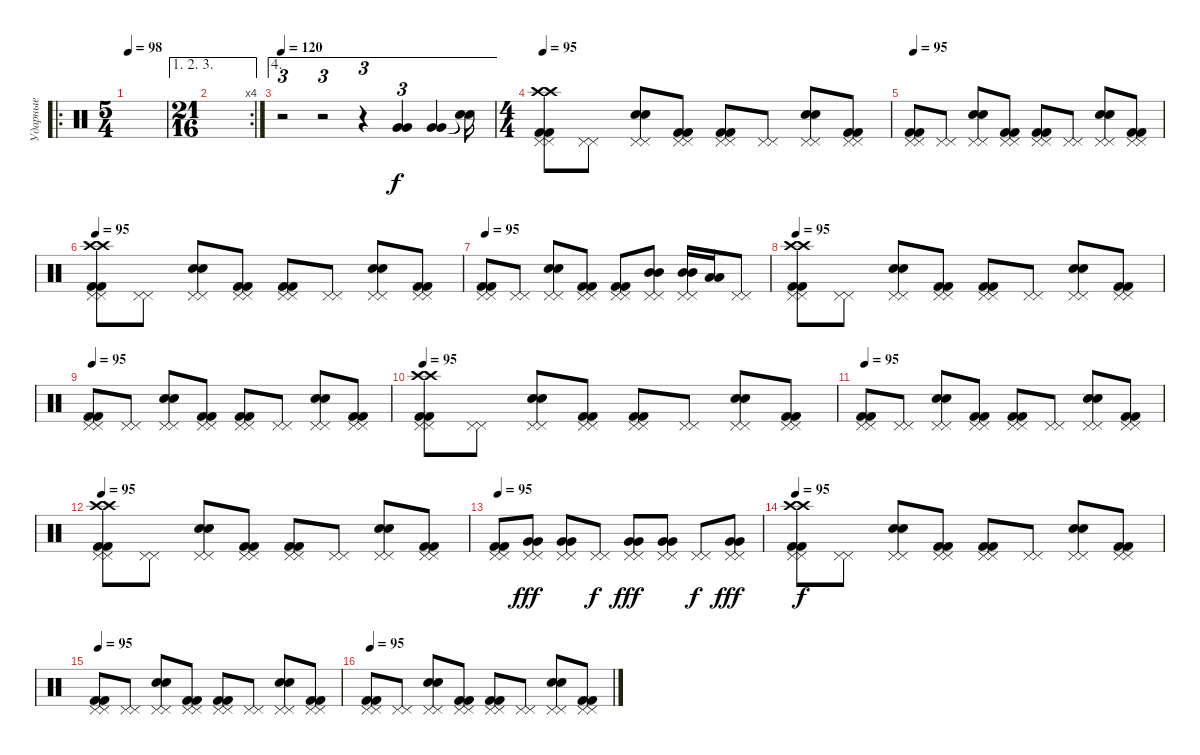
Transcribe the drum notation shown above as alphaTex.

\track ("Ударные" "Ударные") {instrument percussion}
\staff {score}
\articulation defaults
\ro
\ts (5 4)
\tempo 98
\tempo 120
\tempo 98
\clef neutral
\ks c
|
\ae (1 2 3)
\rc 4
\ts (21 16)
|
\ae 4
\tempo 120
r.2{tu (3 2)} r.2{tu (3 2)} r.4{tu (3 2)} ("Very Low Tom (hit)" "Very Low Tom (hit)").4{tu (3 2)} ("Very Low Tom (hit)" "Very Low Tom (hit)").4 ("Snare (hit)"{t} "Snare (hit)"{t}).16{dy f} |
\ts (4 4)
\tempo 95
("Kick (hit) 2" "Kick (hit) 2" "Pedal Hi-Hat (hit)" "Pedal Hi-Hat (hit)" "Crash high (hit)" "Crash high (hit)").8 ("Pedal Hi-Hat (hit)" "Pedal Hi-Hat (hit)").8 ("Pedal Hi-Hat (hit)" "Pedal Hi-Hat (hit)" "Electric Snare (hit)" "Electric Snare (hit)").8 ("Pedal Hi-Hat (hit)" "Pedal Hi-Hat (hit)" "Kick (hit) 2" "Kick (hit) 2").8 ("Pedal Hi-Hat (hit)" "Pedal Hi-Hat (hit)" "Kick (hit) 2" "Kick (hit) 2").8 ("Pedal Hi-Hat (hit)" "Pedal Hi-Hat (hit)").8 ("Pedal Hi-Hat (hit)" "Pedal Hi-Hat (hit)" "Electric Snare (hit)" "Electric Snare (hit)").8 ("Pedal Hi-Hat (hit)" "Pedal Hi-Hat (hit)" "Kick (hit) 2" "Kick (hit) 2").8 |
\tempo 95
("Kick (hit) 2" "Kick (hit) 2" "Pedal Hi-Hat (hit)" "Pedal Hi-Hat (hit)").8 ("Pedal Hi-Hat (hit)" "Pedal Hi-Hat (hit)").8 ("Pedal Hi-Hat (hit)" "Pedal Hi-Hat (hit)" "Electric Snare (hit)" "Electric Snare (hit)").8 ("Pedal Hi-Hat (hit)" "Pedal Hi-Hat (hit)" "Kick (hit) 2" "Kick (hit) 2").8 ("Pedal Hi-Hat (hit)" "Pedal Hi-Hat (hit)" "Kick (hit) 2" "Kick (hit) 2").8 ("Pedal Hi-Hat (hit)" "Pedal Hi-Hat (hit)").8 ("Pedal Hi-Hat (hit)" "Pedal Hi-Hat (hit)" "Electric Snare (hit)" "Electric Snare (hit)").8 ("Pedal Hi-Hat (hit)" "Pedal Hi-Hat (hit)" "Kick (hit) 2" "Kick (hit) 2").8 |
\tempo 95
("Kick (hit) 2" "Kick (hit) 2" "Pedal Hi-Hat (hit)" "Pedal Hi-Hat (hit)" "Crash high (hit)" "Crash high (hit)").8 ("Pedal Hi-Hat (hit)" "Pedal Hi-Hat (hit)").8 ("Pedal Hi-Hat (hit)" "Pedal Hi-Hat (hit)" "Electric Snare (hit)" "Electric Snare (hit)").8 ("Pedal Hi-Hat (hit)" "Pedal Hi-Hat (hit)" "Kick (hit) 2" "Kick (hit) 2").8 ("Pedal Hi-Hat (hit)" "Pedal Hi-Hat (hit)" "Kick (hit) 2" "Kick (hit) 2").8 ("Pedal Hi-Hat (hit)" "Pedal Hi-Hat (hit)").8 ("Pedal Hi-Hat (hit)" "Pedal Hi-Hat (hit)" "Electric Snare (hit)" "Electric Snare (hit)").8 ("Pedal Hi-Hat (hit)" "Pedal Hi-Hat (hit)" "Kick (hit) 2" "Kick (hit) 2").8 |
\tempo 95
("Kick (hit) 2" "Kick (hit) 2" "Pedal Hi-Hat (hit)" "Pedal Hi-Hat (hit)").8 ("Pedal Hi-Hat (hit)" "Pedal Hi-Hat (hit)").8 ("Pedal Hi-Hat (hit)" "Pedal Hi-Hat (hit)" "Electric Snare (hit)" "Electric Snare (hit)").8 ("Pedal Hi-Hat (hit)" "Pedal Hi-Hat (hit)" "Kick (hit) 2" "Kick (hit) 2").8 ("Pedal Hi-Hat (hit)" "Pedal Hi-Hat (hit)" "Kick (hit) 2" "Kick (hit) 2").8 ("Mid Tom (hit)" "Mid Tom (hit)" "Pedal Hi-Hat (hit)" "Pedal Hi-Hat (hit)").8 ("Mid Tom (hit)" "Mid Tom (hit)" "Pedal Hi-Hat (hit)" "Pedal Hi-Hat (hit)").16 ("Low Tom (hit)" "Low Tom (hit)").16 ("Pedal Hi-Hat (hit)" "Pedal Hi-Hat (hit)").8 |
\tempo 95
("Kick (hit) 2" "Kick (hit) 2" "Pedal Hi-Hat (hit)" "Pedal Hi-Hat (hit)" "Crash high (hit)" "Crash high (hit)").8 ("Pedal Hi-Hat (hit)" "Pedal Hi-Hat (hit)").8 ("Pedal Hi-Hat (hit)" "Pedal Hi-Hat (hit)" "Electric Snare (hit)" "Electric Snare (hit)").8 ("Pedal Hi-Hat (hit)" "Pedal Hi-Hat (hit)" "Kick (hit) 2" "Kick (hit) 2").8 ("Pedal Hi-Hat (hit)" "Pedal Hi-Hat (hit)" "Kick (hit) 2" "Kick (hit) 2").8 ("Pedal Hi-Hat (hit)" "Pedal Hi-Hat (hit)").8 ("Pedal Hi-Hat (hit)" "Pedal Hi-Hat (hit)" "Electric Snare (hit)" "Electric Snare (hit)").8 ("Pedal Hi-Hat (hit)" "Pedal Hi-Hat (hit)" "Kick (hit) 2" "Kick (hit) 2").8 |
\tempo 95
("Kick (hit) 2" "Kick (hit) 2" "Pedal Hi-Hat (hit)" "Pedal Hi-Hat (hit)").8 ("Pedal Hi-Hat (hit)" "Pedal Hi-Hat (hit)").8 ("Pedal Hi-Hat (hit)" "Pedal Hi-Hat (hit)" "Electric Snare (hit)" "Electric Snare (hit)").8 ("Pedal Hi-Hat (hit)" "Pedal Hi-Hat (hit)" "Kick (hit) 2" "Kick (hit) 2").8 ("Pedal Hi-Hat (hit)" "Pedal Hi-Hat (hit)" "Kick (hit) 2" "Kick (hit) 2").8 ("Pedal Hi-Hat (hit)" "Pedal Hi-Hat (hit)").8 ("Pedal Hi-Hat (hit)" "Pedal Hi-Hat (hit)" "Electric Snare (hit)" "Electric Snare (hit)").8 ("Pedal Hi-Hat (hit)" "Pedal Hi-Hat (hit)" "Kick (hit) 2" "Kick (hit) 2").8 |
\tempo 95
("Kick (hit) 2" "Kick (hit) 2" "Pedal Hi-Hat (hit)" "Pedal Hi-Hat (hit)" "Crash high (hit)" "Crash high (hit)").8 ("Pedal Hi-Hat (hit)" "Pedal Hi-Hat (hit)").8 ("Pedal Hi-Hat (hit)" "Pedal Hi-Hat (hit)" "Electric Snare (hit)" "Electric Snare (hit)").8 ("Pedal Hi-Hat (hit)" "Pedal Hi-Hat (hit)" "Kick (hit) 2" "Kick (hit) 2").8 ("Pedal Hi-Hat (hit)" "Pedal Hi-Hat (hit)" "Kick (hit) 2" "Kick (hit) 2").8 ("Pedal Hi-Hat (hit)" "Pedal Hi-Hat (hit)").8 ("Pedal Hi-Hat (hit)" "Pedal Hi-Hat (hit)" "Electric Snare (hit)" "Electric Snare (hit)").8 ("Pedal Hi-Hat (hit)" "Pedal Hi-Hat (hit)" "Kick (hit) 2" "Kick (hit) 2").8 |
\tempo 95
("Kick (hit) 2" "Kick (hit) 2" "Pedal Hi-Hat (hit)" "Pedal Hi-Hat (hit)").8 ("Pedal Hi-Hat (hit)" "Pedal Hi-Hat (hit)").8 ("Pedal Hi-Hat (hit)" "Pedal Hi-Hat (hit)" "Electric Snare (hit)" "Electric Snare (hit)").8 ("Pedal Hi-Hat (hit)" "Pedal Hi-Hat (hit)" "Kick (hit) 2" "Kick (hit) 2").8 ("Pedal Hi-Hat (hit)" "Pedal Hi-Hat (hit)" "Kick (hit) 2" "Kick (hit) 2").8 ("Pedal Hi-Hat (hit)" "Pedal Hi-Hat (hit)").8 ("Pedal Hi-Hat (hit)" "Pedal Hi-Hat (hit)" "Electric Snare (hit)" "Electric Snare (hit)").8 ("Pedal Hi-Hat (hit)" "Pedal Hi-Hat (hit)" "Kick (hit) 2" "Kick (hit) 2").8 |
\tempo 95
("Kick (hit) 2" "Kick (hit) 2" "Pedal Hi-Hat (hit)" "Pedal Hi-Hat (hit)" "Crash high (hit)" "Crash high (hit)").8 ("Pedal Hi-Hat (hit)" "Pedal Hi-Hat (hit)").8 ("Pedal Hi-Hat (hit)" "Pedal Hi-Hat (hit)" "Electric Snare (hit)" "Electric Snare (hit)").8 ("Pedal Hi-Hat (hit)" "Pedal Hi-Hat (hit)" "Kick (hit) 2" "Kick (hit) 2").8 ("Pedal Hi-Hat (hit)" "Pedal Hi-Hat (hit)" "Kick (hit) 2" "Kick (hit) 2").8 ("Pedal Hi-Hat (hit)" "Pedal Hi-Hat (hit)").8 ("Pedal Hi-Hat (hit)" "Pedal Hi-Hat (hit)" "Electric Snare (hit)" "Electric Snare (hit)").8 ("Pedal Hi-Hat (hit)" "Pedal Hi-Hat (hit)" "Kick (hit) 2" "Kick (hit) 2").8 |
\tempo 95
("Kick (hit) 2" "Kick (hit) 2" "Pedal Hi-Hat (hit)" "Pedal Hi-Hat (hit)").8 ("Pedal Hi-Hat (hit)" "Pedal Hi-Hat (hit)" "Very Low Tom (hit)" "Very Low Tom (hit)").8{dy fff} ("Pedal Hi-Hat (hit)" "Pedal Hi-Hat (hit)" "Very Low Tom (hit)" "Very Low Tom (hit)").8 ("Pedal Hi-Hat (hit)" "Pedal Hi-Hat (hit)").8{dy f} ("Pedal Hi-Hat (hit)" "Pedal Hi-Hat (hit)" "Very Low Tom (hit)" "Very Low Tom (hit)").8{dy fff} ("Pedal Hi-Hat (hit)" "Pedal Hi-Hat (hit)" "Very Low Tom (hit)" "Very Low Tom (hit)").8 ("Pedal Hi-Hat (hit)" "Pedal Hi-Hat (hit)").8{dy f} ("Pedal Hi-Hat (hit)" "Pedal Hi-Hat (hit)" "Very Low Tom (hit)" "Very Low Tom (hit)").8{dy fff} |
\tempo 95
("Kick (hit) 2" "Kick (hit) 2" "Pedal Hi-Hat (hit)" "Pedal Hi-Hat (hit)" "Crash high (hit)" "Crash high (hit)").8{dy f} ("Pedal Hi-Hat (hit)" "Pedal Hi-Hat (hit)").8 ("Pedal Hi-Hat (hit)" "Pedal Hi-Hat (hit)" "Electric Snare (hit)" "Electric Snare (hit)").8 ("Pedal Hi-Hat (hit)" "Pedal Hi-Hat (hit)" "Kick (hit) 2" "Kick (hit) 2").8 ("Pedal Hi-Hat (hit)" "Pedal Hi-Hat (hit)" "Kick (hit) 2" "Kick (hit) 2").8 ("Pedal Hi-Hat (hit)" "Pedal Hi-Hat (hit)").8 ("Pedal Hi-Hat (hit)" "Pedal Hi-Hat (hit)" "Electric Snare (hit)" "Electric Snare (hit)").8 ("Pedal Hi-Hat (hit)" "Pedal Hi-Hat (hit)" "Kick (hit) 2" "Kick (hit) 2").8 |
\tempo 95
("Kick (hit) 2" "Kick (hit) 2" "Pedal Hi-Hat (hit)" "Pedal Hi-Hat (hit)").8 ("Pedal Hi-Hat (hit)" "Pedal Hi-Hat (hit)").8 ("Pedal Hi-Hat (hit)" "Pedal Hi-Hat (hit)" "Electric Snare (hit)" "Electric Snare (hit)").8 ("Pedal Hi-Hat (hit)" "Pedal Hi-Hat (hit)" "Kick (hit) 2" "Kick (hit) 2").8 ("Pedal Hi-Hat (hit)" "Pedal Hi-Hat (hit)" "Kick (hit) 2" "Kick (hit) 2").8 ("Pedal Hi-Hat (hit)" "Pedal Hi-Hat (hit)").8 ("Pedal Hi-Hat (hit)" "Pedal Hi-Hat (hit)" "Electric Snare (hit)" "Electric Snare (hit)").8 ("Pedal Hi-Hat (hit)" "Pedal Hi-Hat (hit)" "Kick (hit) 2" "Kick (hit) 2").8 |
\tempo 95
("Kick (hit) 2" "Kick (hit) 2" "Pedal Hi-Hat (hit)" "Pedal Hi-Hat (hit)").8 ("Pedal Hi-Hat (hit)" "Pedal Hi-Hat (hit)").8 ("Pedal Hi-Hat (hit)" "Pedal Hi-Hat (hit)" "Electric Snare (hit)" "Electric Snare (hit)").8 ("Pedal Hi-Hat (hit)" "Pedal Hi-Hat (hit)" "Kick (hit) 2" "Kick (hit) 2").8 ("Pedal Hi-Hat (hit)" "Pedal Hi-Hat (hit)" "Kick (hit) 2" "Kick (hit) 2").8 ("Pedal Hi-Hat (hit)" "Pedal Hi-Hat (hit)").8 ("Pedal Hi-Hat (hit)" "Pedal Hi-Hat (hit)" "Electric Snare (hit)" "Electric Snare (hit)").8 ("Pedal Hi-Hat (hit)" "Pedal Hi-Hat (hit)" "Kick (hit) 2" "Kick (hit) 2").8
